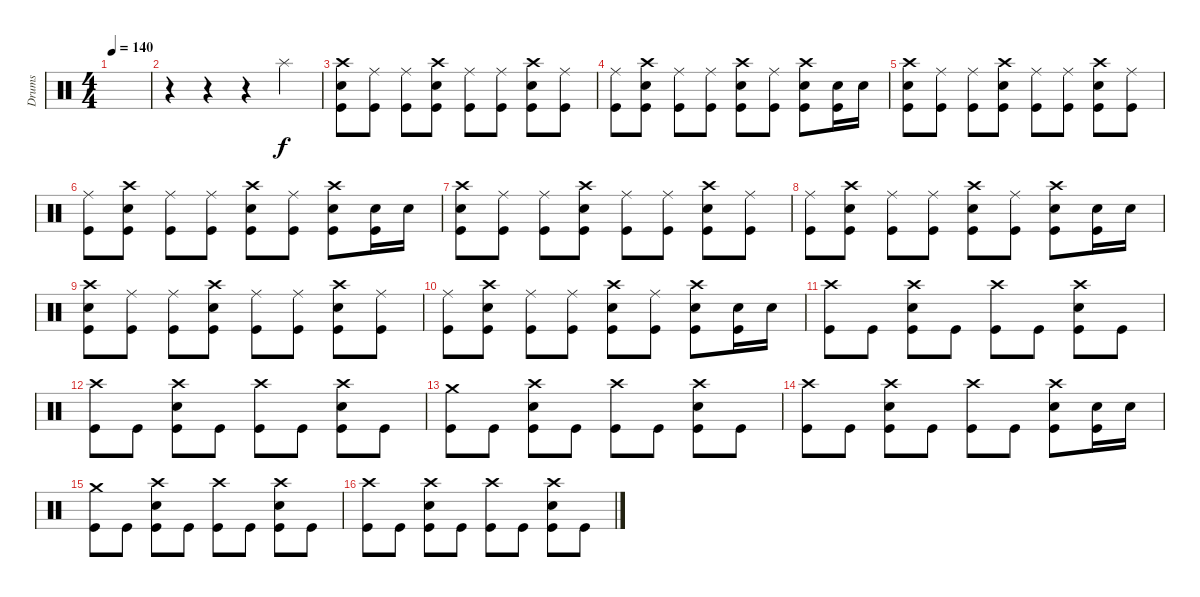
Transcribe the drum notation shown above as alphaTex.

\track ("Drums" "Drums") {instrument percussion}
\staff {score}
\articulation defaults
\ts (4 4)
\tempo 140
\clef neutral
\ks c
|
r.4 r.4 r.4 "Splash (hit)".4 |
("Crash high (hit)" "Snare (hit) 2" "Kick (hit)").8 ("Ride (middle)" "Kick (hit)").8 ("Ride (middle)" "Kick (hit)").8 ("Crash high (hit)" "Snare (hit) 2" "Kick (hit)").8 ("Ride (middle)" "Kick (hit)").8 ("Ride (middle)" "Kick (hit)").8 ("Crash high (hit)" "Snare (hit) 2" "Kick (hit)").8 ("Ride (middle)" "Kick (hit)").8 |
("Ride (middle)" "Kick (hit)").8 ("Crash high (hit)" "Snare (hit) 2" "Kick (hit)").8 ("Ride (middle)" "Kick (hit)").8 ("Ride (middle)" "Kick (hit)").8 ("Crash high (hit)" "Snare (hit) 2" "Kick (hit)").8 ("Ride (middle)" "Kick (hit)").8 ("Crash high (hit)" "Snare (hit) 2" "Kick (hit)").8 ("Snare (hit) 2" "Kick (hit)").16 "Snare (hit) 2".16 |
("Crash high (hit)" "Snare (hit) 2" "Kick (hit)").8 ("Ride (middle)" "Kick (hit)").8 ("Ride (middle)" "Kick (hit)").8 ("Crash high (hit)" "Snare (hit) 2" "Kick (hit)").8 ("Ride (middle)" "Kick (hit)").8 ("Ride (middle)" "Kick (hit)").8 ("Crash high (hit)" "Snare (hit) 2" "Kick (hit)").8 ("Ride (middle)" "Kick (hit)").8 |
("Ride (middle)" "Kick (hit)").8 ("Crash high (hit)" "Snare (hit) 2" "Kick (hit)").8 ("Ride (middle)" "Kick (hit)").8 ("Ride (middle)" "Kick (hit)").8 ("Crash high (hit)" "Snare (hit) 2" "Kick (hit)").8 ("Ride (middle)" "Kick (hit)").8 ("Crash high (hit)" "Snare (hit) 2" "Kick (hit)").8 ("Snare (hit) 2" "Kick (hit)").16 "Snare (hit) 2".16 |
("Crash high (hit)" "Snare (hit) 2" "Kick (hit)").8 ("Ride (middle)" "Kick (hit)").8 ("Ride (middle)" "Kick (hit)").8 ("Crash high (hit)" "Snare (hit) 2" "Kick (hit)").8 ("Ride (middle)" "Kick (hit)").8 ("Ride (middle)" "Kick (hit)").8 ("Crash high (hit)" "Snare (hit) 2" "Kick (hit)").8 ("Ride (middle)" "Kick (hit)").8 |
("Ride (middle)" "Kick (hit)").8 ("Crash high (hit)" "Snare (hit) 2" "Kick (hit)").8 ("Ride (middle)" "Kick (hit)").8 ("Ride (middle)" "Kick (hit)").8 ("Crash high (hit)" "Snare (hit) 2" "Kick (hit)").8 ("Ride (middle)" "Kick (hit)").8 ("Crash high (hit)" "Snare (hit) 2" "Kick (hit)").8 ("Snare (hit) 2" "Kick (hit)").16 "Snare (hit) 2".16 |
("Crash high (hit)" "Snare (hit) 2" "Kick (hit)").8 ("Ride (middle)" "Kick (hit)").8 ("Ride (middle)" "Kick (hit)").8 ("Crash high (hit)" "Snare (hit) 2" "Kick (hit)").8 ("Ride (middle)" "Kick (hit)").8 ("Ride (middle)" "Kick (hit)").8 ("Crash high (hit)" "Snare (hit) 2" "Kick (hit)").8 ("Ride (middle)" "Kick (hit)").8 |
("Ride (middle)" "Kick (hit)").8 ("Crash high (hit)" "Snare (hit) 2" "Kick (hit)").8 ("Ride (middle)" "Kick (hit)").8 ("Ride (middle)" "Kick (hit)").8 ("Crash high (hit)" "Snare (hit) 2" "Kick (hit)").8 ("Ride (middle)" "Kick (hit)").8 ("Crash high (hit)" "Snare (hit) 2" "Kick (hit)").8 ("Snare (hit) 2" "Kick (hit)").16 "Snare (hit) 2".16 |
("Crash high (hit)" "Kick (hit)").8 "Kick (hit)".8 ("Crash high (hit)" "Snare (hit) 2" "Kick (hit)").8 "Kick (hit)".8 ("Crash high (hit)" "Kick (hit)").8 "Kick (hit)".8 ("Crash high (hit)" "Snare (hit) 2" "Kick (hit)").8 "Kick (hit)".8 |
("Crash high (hit)" "Kick (hit)").8 "Kick (hit)".8 ("Crash high (hit)" "Snare (hit) 2" "Kick (hit)").8 "Kick (hit)".8 ("Crash high (hit)" "Kick (hit)").8 "Kick (hit)".8 ("Crash high (hit)" "Snare (hit) 2" "Kick (hit)").8 "Kick (hit)".8 |
("Crash medium (hit)" "Kick (hit)").8 "Kick (hit)".8 ("Crash high (hit)" "Snare (hit) 2" "Kick (hit)").8 "Kick (hit)".8 ("Crash high (hit)" "Kick (hit)").8 "Kick (hit)".8 ("Crash high (hit)" "Snare (hit) 2" "Kick (hit)").8 "Kick (hit)".8 |
("Crash high (hit)" "Kick (hit)").8 "Kick (hit)".8 ("Crash high (hit)" "Snare (hit) 2" "Kick (hit)").8 "Kick (hit)".8 ("Crash high (hit)" "Kick (hit)").8 "Kick (hit)".8 ("Crash high (hit)" "Snare (hit) 2" "Kick (hit)").8 ("Snare (hit) 2" "Kick (hit)").16 "Snare (hit) 2".16 |
("Crash medium (hit)" "Kick (hit)").8 "Kick (hit)".8 ("Crash high (hit)" "Snare (hit) 2" "Kick (hit)").8 "Kick (hit)".8 ("Crash high (hit)" "Kick (hit)").8 "Kick (hit)".8 ("Crash high (hit)" "Snare (hit) 2" "Kick (hit)").8 "Kick (hit)".8 |
("Crash high (hit)" "Kick (hit)").8 "Kick (hit)".8 ("Crash high (hit)" "Snare (hit) 2" "Kick (hit)").8 "Kick (hit)".8 ("Crash high (hit)" "Kick (hit)").8 "Kick (hit)".8 ("Crash high (hit)" "Snare (hit) 2" "Kick (hit)").8 "Kick (hit)".8
